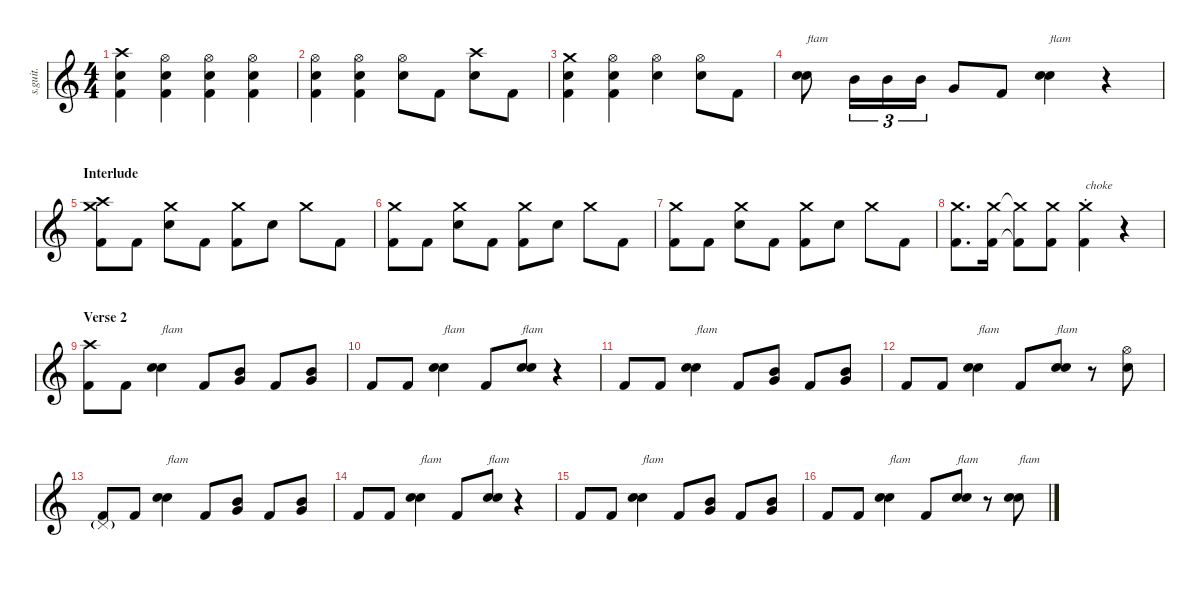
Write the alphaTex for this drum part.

\defaultSystemsLayout 4
\hideDynamics
\bracketExtendMode nobrackets
\track ("Zac Farro | Drums" "s.guit.") {instrument percussion}
\staff {score}
\articulation defaults
\ts (4 4)
\tempo (173 hide)
\clef g2
\ks c
("Crash high (hit)" "Electric Snare (hit)" "Kick (hit) 2").4{lyrics (0 "") lyrics (1 "") lyrics (2 "") lyrics (3 "") lyrics (4 "") dy f} ("Hi-Hat (open)" "Electric Snare (hit)" "Kick (hit) 2").4{lyrics (0 "") lyrics (1 "") lyrics (2 "") lyrics (3 "") lyrics (4 "")} ("Hi-Hat (open)" "Electric Snare (hit)" "Kick (hit) 2").4{lyrics (0 "") lyrics (1 "") lyrics (2 "") lyrics (3 "") lyrics (4 "")} ("Hi-Hat (open)" "Electric Snare (hit)" "Kick (hit) 2").4{lyrics (0 "") lyrics (1 "") lyrics (2 "") lyrics (3 "") lyrics (4 "")} |
("Hi-Hat (open)" "Electric Snare (hit)" "Kick (hit) 2").4{lyrics (0 "") lyrics (1 "") lyrics (2 "") lyrics (3 "") lyrics (4 "")} ("Hi-Hat (open)" "Electric Snare (hit)" "Kick (hit) 2").4{lyrics (0 "") lyrics (1 "") lyrics (2 "") lyrics (3 "") lyrics (4 "")} ("Hi-Hat (open)" "Electric Snare (hit)").8{lyrics (0 "") lyrics (1 "") lyrics (2 "") lyrics (3 "") lyrics (4 "")} "Kick (hit) 2".8{lyrics (0 "") lyrics (1 "") lyrics (2 "") lyrics (3 "") lyrics (4 "")} ("Crash high (hit)" "Electric Snare (hit)").8{lyrics (0 "") lyrics (1 "") lyrics (2 "") lyrics (3 "") lyrics (4 "")} "Kick (hit) 2".8{lyrics (0 "") lyrics (1 "") lyrics (2 "") lyrics (3 "") lyrics (4 "")} |
("Crash medium (hit)" "Electric Snare (hit)" "Kick (hit) 2").4{lyrics (0 "") lyrics (1 "") lyrics (2 "") lyrics (3 "") lyrics (4 "")} ("Hi-Hat (open)" "Electric Snare (hit)" "Kick (hit) 2").4{lyrics (0 "") lyrics (1 "") lyrics (2 "") lyrics (3 "") lyrics (4 "")} ("Hi-Hat (open)" "Electric Snare (hit)").4{lyrics (0 "") lyrics (1 "") lyrics (2 "") lyrics (3 "") lyrics (4 "")} ("Hi-Hat (open)" "Electric Snare (hit)").8{lyrics (0 "") lyrics (1 "") lyrics (2 "") lyrics (3 "") lyrics (4 "")} "Kick (hit) 2".8{lyrics (0 "") lyrics (1 "") lyrics (2 "") lyrics (3 "") lyrics (4 "")} |
("Electric Snare (hit)" "Electric Snare (hit)").8{bd 30 txt "flam" lyrics (0 "") lyrics (1 "") lyrics (2 "") lyrics (3 "") lyrics (4 "")} "Mid Tom (hit)".16{tu (3 2) lyrics (0 "") lyrics (1 "") lyrics (2 "") lyrics (3 "") lyrics (4 "")} "Mid Tom (hit)".16{tu (3 2) lyrics (0 "") lyrics (1 "") lyrics (2 "") lyrics (3 "") lyrics (4 "")} "Mid Tom (hit)".16{tu (3 2) lyrics (0 "") lyrics (1 "") lyrics (2 "") lyrics (3 "") lyrics (4 "")} "Very Low Tom (hit)".8{lyrics (0 "") lyrics (1 "") lyrics (2 "") lyrics (3 "") lyrics (4 "")} "Kick (hit) 2".8{lyrics (0 "") lyrics (1 "") lyrics (2 "") lyrics (3 "") lyrics (4 "")} ("Electric Snare (hit)" "Electric Snare (hit)").4{bd 30 txt "flam" lyrics (0 "") lyrics (1 "") lyrics (2 "") lyrics (3 "") lyrics (4 "")} r.4 |
\section ("" "Interlude")
("Crash high (hit)" "Crash medium (hit)" "Kick (hit) 2").8{lyrics (0 "") lyrics (1 "") lyrics (2 "") lyrics (3 "") lyrics (4 "")} "Kick (hit) 2".8{lyrics (0 "") lyrics (1 "") lyrics (2 "") lyrics (3 "") lyrics (4 "")} ("Crash medium (hit)" "Electric Snare (hit)").8{lyrics (0 "") lyrics (1 "") lyrics (2 "") lyrics (3 "") lyrics (4 "")} "Kick (hit) 2".8{lyrics (0 "") lyrics (1 "") lyrics (2 "") lyrics (3 "") lyrics (4 "")} ("Crash medium (hit)" "Kick (hit) 2").8{lyrics (0 "") lyrics (1 "") lyrics (2 "") lyrics (3 "") lyrics (4 "")} "Electric Snare (hit)".8{lyrics (0 "") lyrics (1 "") lyrics (2 "") lyrics (3 "") lyrics (4 "")} "Crash medium (hit)".8{lyrics (0 "") lyrics (1 "") lyrics (2 "") lyrics (3 "") lyrics (4 "")} "Kick (hit) 2".8{lyrics (0 "") lyrics (1 "") lyrics (2 "") lyrics (3 "") lyrics (4 "")} |
("Crash medium (hit)" "Kick (hit) 2").8{lyrics (0 "") lyrics (1 "") lyrics (2 "") lyrics (3 "") lyrics (4 "")} "Kick (hit) 2".8{lyrics (0 "") lyrics (1 "") lyrics (2 "") lyrics (3 "") lyrics (4 "")} ("Crash medium (hit)" "Electric Snare (hit)").8{lyrics (0 "") lyrics (1 "") lyrics (2 "") lyrics (3 "") lyrics (4 "")} "Kick (hit) 2".8{lyrics (0 "") lyrics (1 "") lyrics (2 "") lyrics (3 "") lyrics (4 "")} ("Crash medium (hit)" "Kick (hit) 2").8{lyrics (0 "") lyrics (1 "") lyrics (2 "") lyrics (3 "") lyrics (4 "")} "Electric Snare (hit)".8{lyrics (0 "") lyrics (1 "") lyrics (2 "") lyrics (3 "") lyrics (4 "")} "Crash medium (hit)".8{lyrics (0 "") lyrics (1 "") lyrics (2 "") lyrics (3 "") lyrics (4 "")} "Kick (hit) 2".8{lyrics (0 "") lyrics (1 "") lyrics (2 "") lyrics (3 "") lyrics (4 "")} |
("Crash medium (hit)" "Kick (hit) 2").8{lyrics (0 "") lyrics (1 "") lyrics (2 "") lyrics (3 "") lyrics (4 "")} "Kick (hit) 2".8{lyrics (0 "") lyrics (1 "") lyrics (2 "") lyrics (3 "") lyrics (4 "")} ("Crash medium (hit)" "Electric Snare (hit)").8{lyrics (0 "") lyrics (1 "") lyrics (2 "") lyrics (3 "") lyrics (4 "")} "Kick (hit) 2".8{lyrics (0 "") lyrics (1 "") lyrics (2 "") lyrics (3 "") lyrics (4 "")} ("Crash medium (hit)" "Kick (hit) 2").8{lyrics (0 "") lyrics (1 "") lyrics (2 "") lyrics (3 "") lyrics (4 "")} "Electric Snare (hit)".8{lyrics (0 "") lyrics (1 "") lyrics (2 "") lyrics (3 "") lyrics (4 "")} "Crash medium (hit)".8{lyrics (0 "") lyrics (1 "") lyrics (2 "") lyrics (3 "") lyrics (4 "")} "Kick (hit) 2".8{lyrics (0 "") lyrics (1 "") lyrics (2 "") lyrics (3 "") lyrics (4 "")} |
("Crash medium (hit)" "Kick (hit) 2").8{d lyrics (0 "") lyrics (1 "") lyrics (2 "") lyrics (3 "") lyrics (4 "")} ("Crash medium (hit)" "Kick (hit) 2").16{lyrics (0 "") lyrics (1 "") lyrics (2 "") lyrics (3 "") lyrics (4 "")} ("Crash medium (hit)"{t} "Kick (hit) 2"{t}).8{lyrics (0 "") lyrics (1 "") lyrics (2 "") lyrics (3 "") lyrics (4 "")} ("Crash medium (hit)" "Kick (hit) 2").8{lyrics (0 "") lyrics (1 "") lyrics (2 "") lyrics (3 "") lyrics (4 "")} ("Crash medium (choke)" "Kick (hit) 2").4{txt "choke" lyrics (0 "") lyrics (1 "") lyrics (2 "") lyrics (3 "") lyrics (4 "")} r.4 |
\section ("" "Verse 2")
("Crash high (hit)" "Kick (hit) 2").8{lyrics (0 "") lyrics (1 "") lyrics (2 "") lyrics (3 "") lyrics (4 "")} "Kick (hit) 2".8{lyrics (0 "") lyrics (1 "") lyrics (2 "") lyrics (3 "") lyrics (4 "")} ("Electric Snare (hit)" "Electric Snare (hit)").4{bd 30 txt "flam" lyrics (0 "") lyrics (1 "") lyrics (2 "") lyrics (3 "") lyrics (4 "")} "Kick (hit) 2".8{lyrics (0 "") lyrics (1 "") lyrics (2 "") lyrics (3 "") lyrics (4 "")} ("Mid Tom (hit)" "Very Low Tom (hit)").8{lyrics (0 "") lyrics (1 "") lyrics (2 "") lyrics (3 "") lyrics (4 "")} "Kick (hit) 2".8{lyrics (0 "") lyrics (1 "") lyrics (2 "") lyrics (3 "") lyrics (4 "")} ("Mid Tom (hit)" "Very Low Tom (hit)").8{lyrics (0 "") lyrics (1 "") lyrics (2 "") lyrics (3 "") lyrics (4 "")} |
"Kick (hit) 2".8{lyrics (0 "") lyrics (1 "") lyrics (2 "") lyrics (3 "") lyrics (4 "")} "Kick (hit) 2".8{lyrics (0 "") lyrics (1 "") lyrics (2 "") lyrics (3 "") lyrics (4 "")} ("Electric Snare (hit)" "Electric Snare (hit)").4{bd 30 txt "flam" lyrics (0 "") lyrics (1 "") lyrics (2 "") lyrics (3 "") lyrics (4 "")} "Kick (hit) 2".8{lyrics (0 "") lyrics (1 "") lyrics (2 "") lyrics (3 "") lyrics (4 "")} ("Electric Snare (hit)" "Electric Snare (hit)").8{bd 30 txt "flam" lyrics (0 "") lyrics (1 "") lyrics (2 "") lyrics (3 "") lyrics (4 "")} r.4 |
"Kick (hit) 2".8{lyrics (0 "") lyrics (1 "") lyrics (2 "") lyrics (3 "") lyrics (4 "")} "Kick (hit) 2".8{lyrics (0 "") lyrics (1 "") lyrics (2 "") lyrics (3 "") lyrics (4 "")} ("Electric Snare (hit)" "Electric Snare (hit)").4{bd 30 txt "flam" lyrics (0 "") lyrics (1 "") lyrics (2 "") lyrics (3 "") lyrics (4 "")} "Kick (hit) 2".8{lyrics (0 "") lyrics (1 "") lyrics (2 "") lyrics (3 "") lyrics (4 "")} ("Mid Tom (hit)" "Very Low Tom (hit)").8{lyrics (0 "") lyrics (1 "") lyrics (2 "") lyrics (3 "") lyrics (4 "")} "Kick (hit) 2".8{lyrics (0 "") lyrics (1 "") lyrics (2 "") lyrics (3 "") lyrics (4 "")} ("Mid Tom (hit)" "Very Low Tom (hit)").8{lyrics (0 "") lyrics (1 "") lyrics (2 "") lyrics (3 "") lyrics (4 "")} |
"Kick (hit) 2".8{lyrics (0 "") lyrics (1 "") lyrics (2 "") lyrics (3 "") lyrics (4 "")} "Kick (hit) 2".8{lyrics (0 "") lyrics (1 "") lyrics (2 "") lyrics (3 "") lyrics (4 "")} ("Electric Snare (hit)" "Electric Snare (hit)").4{bd 30 txt "flam" lyrics (0 "") lyrics (1 "") lyrics (2 "") lyrics (3 "") lyrics (4 "")} "Kick (hit) 2".8{lyrics (0 "") lyrics (1 "") lyrics (2 "") lyrics (3 "") lyrics (4 "")} ("Electric Snare (hit)" "Electric Snare (hit)").8{bd 30 txt "flam" lyrics (0 "") lyrics (1 "") lyrics (2 "") lyrics (3 "") lyrics (4 "")} r.8 ("Hi-Hat (open)" "Electric Snare (hit)").8{lyrics (0 "") lyrics (1 "") lyrics (2 "") lyrics (3 "") lyrics (4 "")} |
("Kick (hit) 2" "Pedal Hi-Hat (hit)"{g}).8{lyrics (0 "") lyrics (1 "") lyrics (2 "") lyrics (3 "") lyrics (4 "")} "Kick (hit) 2".8{lyrics (0 "") lyrics (1 "") lyrics (2 "") lyrics (3 "") lyrics (4 "")} ("Electric Snare (hit)" "Electric Snare (hit)").4{bd 30 txt "flam" lyrics (0 "") lyrics (1 "") lyrics (2 "") lyrics (3 "") lyrics (4 "")} "Kick (hit) 2".8{lyrics (0 "") lyrics (1 "") lyrics (2 "") lyrics (3 "") lyrics (4 "")} ("Mid Tom (hit)" "Very Low Tom (hit)").8{lyrics (0 "") lyrics (1 "") lyrics (2 "") lyrics (3 "") lyrics (4 "")} "Kick (hit) 2".8{lyrics (0 "") lyrics (1 "") lyrics (2 "") lyrics (3 "") lyrics (4 "")} ("Mid Tom (hit)" "Very Low Tom (hit)").8{lyrics (0 "") lyrics (1 "") lyrics (2 "") lyrics (3 "") lyrics (4 "")} |
"Kick (hit) 2".8{lyrics (0 "") lyrics (1 "") lyrics (2 "") lyrics (3 "") lyrics (4 "")} "Kick (hit) 2".8{lyrics (0 "") lyrics (1 "") lyrics (2 "") lyrics (3 "") lyrics (4 "")} ("Electric Snare (hit)" "Electric Snare (hit)").4{bd 30 txt "flam" lyrics (0 "") lyrics (1 "") lyrics (2 "") lyrics (3 "") lyrics (4 "")} "Kick (hit) 2".8{lyrics (0 "") lyrics (1 "") lyrics (2 "") lyrics (3 "") lyrics (4 "")} ("Electric Snare (hit)" "Electric Snare (hit)").8{bd 30 txt "flam" lyrics (0 "") lyrics (1 "") lyrics (2 "") lyrics (3 "") lyrics (4 "")} r.4 |
"Kick (hit) 2".8{lyrics (0 "") lyrics (1 "") lyrics (2 "") lyrics (3 "") lyrics (4 "")} "Kick (hit) 2".8{lyrics (0 "") lyrics (1 "") lyrics (2 "") lyrics (3 "") lyrics (4 "")} ("Electric Snare (hit)" "Electric Snare (hit)").4{bd 30 txt "flam" lyrics (0 "") lyrics (1 "") lyrics (2 "") lyrics (3 "") lyrics (4 "")} "Kick (hit) 2".8{lyrics (0 "") lyrics (1 "") lyrics (2 "") lyrics (3 "") lyrics (4 "")} ("Mid Tom (hit)" "Very Low Tom (hit)").8{lyrics (0 "") lyrics (1 "") lyrics (2 "") lyrics (3 "") lyrics (4 "")} "Kick (hit) 2".8{lyrics (0 "") lyrics (1 "") lyrics (2 "") lyrics (3 "") lyrics (4 "")} ("Mid Tom (hit)" "Very Low Tom (hit)").8{lyrics (0 "") lyrics (1 "") lyrics (2 "") lyrics (3 "") lyrics (4 "")} |
"Kick (hit) 2".8{lyrics (0 "") lyrics (1 "") lyrics (2 "") lyrics (3 "") lyrics (4 "")} "Kick (hit) 2".8{lyrics (0 "") lyrics (1 "") lyrics (2 "") lyrics (3 "") lyrics (4 "")} ("Electric Snare (hit)" "Electric Snare (hit)").4{bd 30 txt "flam" lyrics (0 "") lyrics (1 "") lyrics (2 "") lyrics (3 "") lyrics (4 "")} "Kick (hit) 2".8{lyrics (0 "") lyrics (1 "") lyrics (2 "") lyrics (3 "") lyrics (4 "")} ("Electric Snare (hit)" "Electric Snare (hit)").8{bd 30 txt "flam" lyrics (0 "") lyrics (1 "") lyrics (2 "") lyrics (3 "") lyrics (4 "")} r.8 ("Electric Snare (hit)" "Electric Snare (hit)").8{bd 30 txt "flam" lyrics (0 "") lyrics (1 "") lyrics (2 "") lyrics (3 "") lyrics (4 "")}
